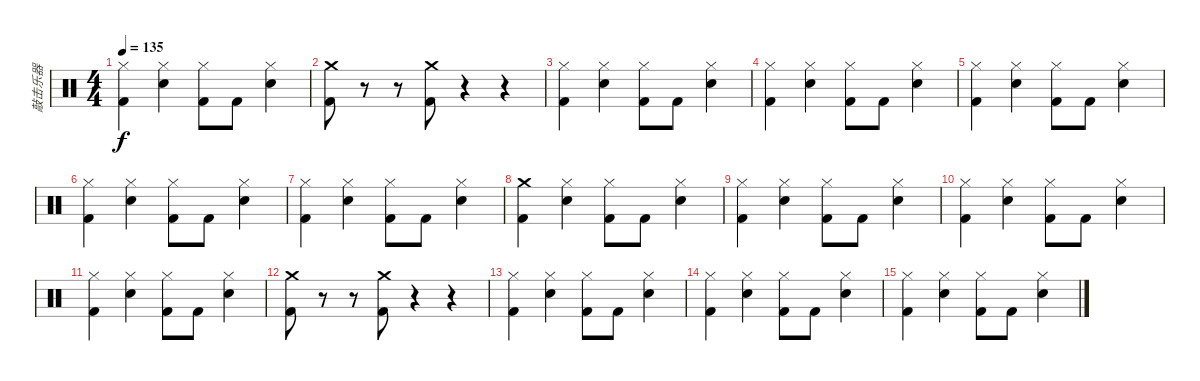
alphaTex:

\track ("敲击乐器" "敲击乐器") {instrument percussion}
\staff {score}
\articulation defaults
\ts (4 4)
\tempo 135
\clef neutral
\ks c
("Hi-Hat (closed)" "Kick (hit) 2").4{dy f} ("Hi-Hat (closed)" "Snare (hit) 2").4 ("Hi-Hat (closed)" "Kick (hit) 2").8 "Kick (hit) 2".8 ("Hi-Hat (closed)" "Snare (hit) 2").4 |
("Crash medium (hit)" "Kick (hit) 2").8 r.8 r.8 ("Crash medium (hit)" "Kick (hit) 2").8 r.4 r.4 |
("Hi-Hat (closed)" "Kick (hit) 2").4 ("Hi-Hat (closed)" "Snare (hit) 2").4 ("Hi-Hat (closed)" "Kick (hit) 2").8 "Kick (hit) 2".8 ("Hi-Hat (closed)" "Snare (hit) 2").4 |
("Hi-Hat (closed)" "Kick (hit) 2").4 ("Hi-Hat (closed)" "Snare (hit) 2").4 ("Hi-Hat (closed)" "Kick (hit) 2").8 "Kick (hit) 2".8 ("Hi-Hat (closed)" "Snare (hit) 2").4 |
("Hi-Hat (closed)" "Kick (hit) 2").4 ("Hi-Hat (closed)" "Snare (hit) 2").4 ("Hi-Hat (closed)" "Kick (hit) 2").8 "Kick (hit) 2".8 ("Hi-Hat (closed)" "Snare (hit) 2").4 |
("Hi-Hat (closed)" "Kick (hit) 2").4 ("Hi-Hat (closed)" "Snare (hit) 2").4 ("Hi-Hat (closed)" "Kick (hit) 2").8 "Kick (hit) 2".8 ("Hi-Hat (closed)" "Snare (hit) 2").4 |
("Hi-Hat (closed)" "Kick (hit) 2").4 ("Hi-Hat (closed)" "Snare (hit) 2").4 ("Hi-Hat (closed)" "Kick (hit) 2").8 "Kick (hit) 2".8 ("Hi-Hat (closed)" "Snare (hit) 2").4 |
("Crash medium (hit)" "Kick (hit) 2").4 ("Hi-Hat (closed)" "Snare (hit) 2").4 ("Hi-Hat (closed)" "Kick (hit) 2").8 "Kick (hit) 2".8 ("Hi-Hat (closed)" "Snare (hit) 2").4 |
("Hi-Hat (closed)" "Kick (hit) 2").4 ("Hi-Hat (closed)" "Snare (hit) 2").4 ("Hi-Hat (closed)" "Kick (hit) 2").8 "Kick (hit) 2".8 ("Hi-Hat (closed)" "Snare (hit) 2").4 |
("Hi-Hat (closed)" "Kick (hit) 2").4 ("Hi-Hat (closed)" "Snare (hit) 2").4 ("Hi-Hat (closed)" "Kick (hit) 2").8 "Kick (hit) 2".8 ("Hi-Hat (closed)" "Snare (hit) 2").4 |
("Hi-Hat (closed)" "Kick (hit) 2").4 ("Hi-Hat (closed)" "Snare (hit) 2").4 ("Hi-Hat (closed)" "Kick (hit) 2").8 "Kick (hit) 2".8 ("Hi-Hat (closed)" "Snare (hit) 2").4 |
("Crash medium (hit)" "Kick (hit) 2").8 r.8 r.8 ("Crash medium (hit)" "Kick (hit) 2").8 r.4 r.4 |
("Hi-Hat (closed)" "Kick (hit) 2").4 ("Hi-Hat (closed)" "Snare (hit) 2").4 ("Hi-Hat (closed)" "Kick (hit) 2").8 "Kick (hit) 2".8 ("Hi-Hat (closed)" "Snare (hit) 2").4 |
("Hi-Hat (closed)" "Kick (hit) 2").4 ("Hi-Hat (closed)" "Snare (hit) 2").4 ("Hi-Hat (closed)" "Kick (hit) 2").8 "Kick (hit) 2".8 ("Hi-Hat (closed)" "Snare (hit) 2").4 |
("Hi-Hat (closed)" "Kick (hit) 2").4 ("Hi-Hat (closed)" "Snare (hit) 2").4 ("Hi-Hat (closed)" "Kick (hit) 2").8 "Kick (hit) 2".8 ("Hi-Hat (closed)" "Snare (hit) 2").4
